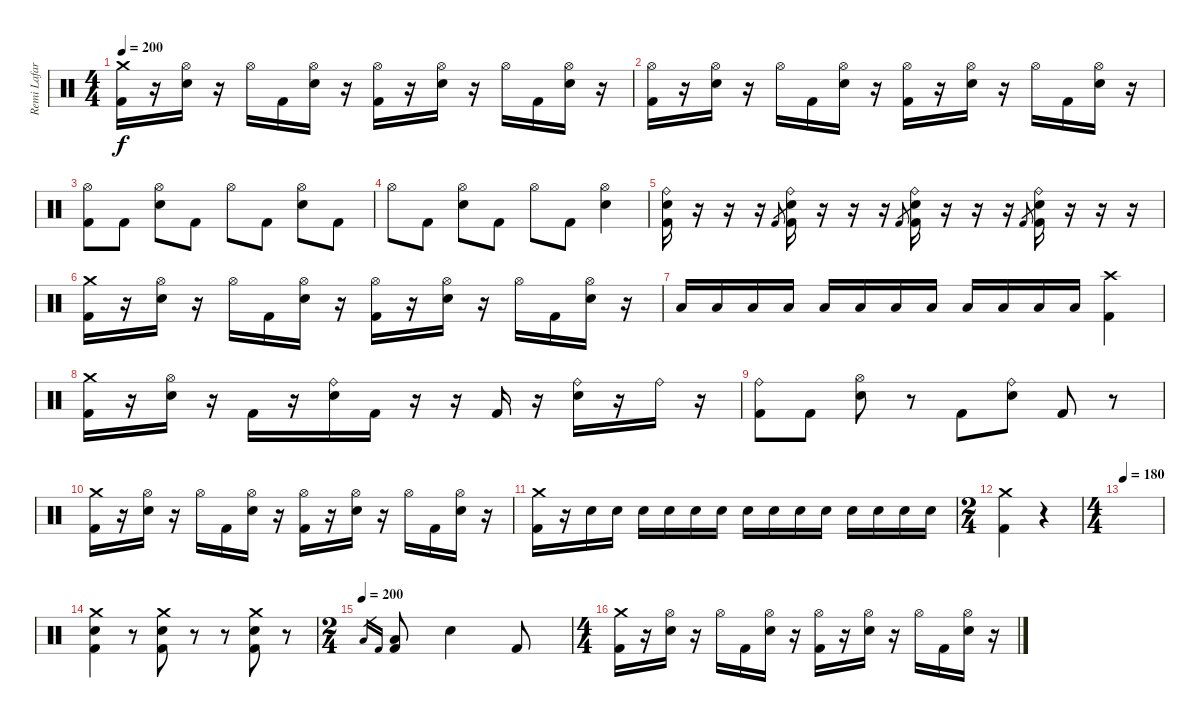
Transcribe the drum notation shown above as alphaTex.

\track ("Remi Lafargue " "Remi Lafar") {instrument percussion}
\staff {score}
\articulation defaults
\ts (4 4)
\tempo 200
\clef neutral
\ks c
("Crash medium (hit)" "Kick (hit) 2").16{dy f} r.16 ("Hi-Hat (open)" "Snare (hit) 2").16 r.16 "Hi-Hat (open)".16 "Kick (hit) 2".16 ("Hi-Hat (open)" "Snare (hit) 2").16 r.16 ("Hi-Hat (open)" "Kick (hit) 2").16 r.16 ("Hi-Hat (open)" "Snare (hit) 2").16 r.16 "Hi-Hat (open)".16 "Kick (hit) 2".16 ("Hi-Hat (open)" "Snare (hit) 2").16 r.16 |
("Hi-Hat (open)" "Kick (hit) 2").16 r.16 ("Hi-Hat (open)" "Snare (hit) 2").16 r.16 "Hi-Hat (open)".16 "Kick (hit) 2".16 ("Hi-Hat (open)" "Snare (hit) 2").16 r.16 ("Hi-Hat (open)" "Kick (hit) 2").16 r.16 ("Hi-Hat (open)" "Snare (hit) 2").16 r.16 "Hi-Hat (open)".16 "Kick (hit) 2".16 ("Hi-Hat (open)" "Snare (hit) 2").16 r.16 |
("Hi-Hat (open)" "Kick (hit) 2").8 "Kick (hit) 2".8 ("Hi-Hat (open)" "Snare (hit) 2").8 "Kick (hit) 2".8 "Hi-Hat (open)".8 "Kick (hit) 2".8 ("Hi-Hat (open)" "Snare (hit) 2").8 "Kick (hit) 2".8 |
"Hi-Hat (open)".8 "Kick (hit) 2".8 ("Hi-Hat (open)" "Snare (hit) 2").8 "Kick (hit) 2".8 "Hi-Hat (open)".8 "Kick (hit) 2".8 ("Hi-Hat (open)" "Snare (hit) 2").4 |
("Ride (bell)" "Snare (hit) 2" "Kick (hit) 2").16 r.16 r.16 r.16 "Kick (hit) 2".8{gr} ("Ride (bell)" "Snare (hit) 2" "Kick (hit) 2").16 r.16 r.16 r.16 "Kick (hit) 2".8{gr} ("Ride (bell)" "Snare (hit) 2" "Kick (hit) 2").16 r.16 r.16 r.16 "Kick (hit) 2".8{gr} ("Ride (bell)" "Snare (hit) 2" "Kick (hit) 2").16 r.16 r.16 r.16 |
("Crash medium (hit)" "Kick (hit) 2").16 r.16 ("Hi-Hat (open)" "Snare (hit) 2").16 r.16 "Hi-Hat (open)".16 "Kick (hit) 2".16 ("Hi-Hat (open)" "Snare (hit) 2").16 r.16 ("Hi-Hat (open)" "Kick (hit) 2").16 r.16 ("Hi-Hat (open)" "Snare (hit) 2").16 r.16 "Hi-Hat (open)".16 "Kick (hit) 2".16 ("Hi-Hat (open)" "Snare (hit) 2").16 r.16 |
"Low Floor Tom (hit)".16 "Low Floor Tom (hit)".16 "Low Floor Tom (hit)".16 "Low Floor Tom (hit)".16 "Low Floor Tom (hit)".16 "Low Floor Tom (hit)".16 "Low Floor Tom (hit)".16 "Low Floor Tom (hit)".16 "Low Floor Tom (hit)".16 "Low Floor Tom (hit)".16 "Low Floor Tom (hit)".16 "Low Floor Tom (hit)".16 ("Crash high (hit)" "Kick (hit) 2").4 |
("Crash medium (hit)" "Kick (hit) 2").16 r.16 ("Hi-Hat (open)" "Snare (hit) 2").16 r.16 "Kick (hit) 2".16 r.16 ("Ride (bell)" "Snare (hit) 2").16 "Kick (hit) 2".16 r.16 r.16 "Kick (hit) 2".16 r.16 ("Ride (bell)" "Snare (hit) 2").16 r.16 "Ride (bell)".16 r.16 |
("Ride (bell)" "Kick (hit) 2").8 "Kick (hit) 2".8 ("Hi-Hat (open)" "Snare (hit) 2").8 r.8 "Kick (hit) 2".8 ("Ride (bell)" "Snare (hit) 2").8 "Kick (hit) 2".8 r.8 |
("Crash medium (hit)" "Kick (hit) 2").16 r.16 ("Hi-Hat (open)" "Snare (hit) 2").16 r.16 "Hi-Hat (open)".16 "Kick (hit) 2".16 ("Hi-Hat (open)" "Snare (hit) 2").16 r.16 ("Hi-Hat (open)" "Kick (hit) 2").16 r.16 ("Hi-Hat (open)" "Snare (hit) 2").16 r.16 "Hi-Hat (open)".16 "Kick (hit) 2".16 ("Hi-Hat (open)" "Snare (hit) 2").16 r.16 |
("Crash medium (hit)" "Kick (hit) 2").16 r.16 "Snare (hit) 2".16 "Snare (hit) 2".16 "Snare (hit) 2".16 "Snare (hit) 2".16 "Snare (hit) 2".16 "Snare (hit) 2".16 "Snare (hit) 2".16 "Snare (hit) 2".16 "Snare (hit) 2".16 "Snare (hit) 2".16 "Snare (hit) 2".16 "Snare (hit) 2".16 "Snare (hit) 2".16 "Snare (hit) 2".16 |
\ts (2 4)
("Crash medium (hit)" "Kick (hit) 2").4 r.4 |
\ts (4 4)
\tempo 180
|
("Crash medium (hit)" "Snare (hit) 2" "Kick (hit) 2").4 r.8 ("Crash medium (hit)" "Snare (hit) 2" "Kick (hit) 2").8 r.8 r.8 ("Crash medium (hit)" "Snare (hit) 2" "Kick (hit) 2").8 r.8 |
\ts (2 4)
\tempo (200)
"Low Floor Tom (hit)".16{gr} "Kick (hit) 2".16{gr} ("Low Floor Tom (hit)" "Kick (hit) 2").8 "Snare (hit) 2".4 "Kick (hit) 2".8 |
\ts (4 4)
("Crash medium (hit)" "Kick (hit) 2").16 r.16 ("Hi-Hat (open)" "Snare (hit) 2").16 r.16 "Hi-Hat (open)".16 "Kick (hit) 2".16 ("Hi-Hat (open)" "Snare (hit) 2").16 r.16 ("Hi-Hat (open)" "Kick (hit) 2").16 r.16 ("Hi-Hat (open)" "Snare (hit) 2").16 r.16 "Hi-Hat (open)".16 "Kick (hit) 2".16 ("Hi-Hat (open)" "Snare (hit) 2").16 r.16
